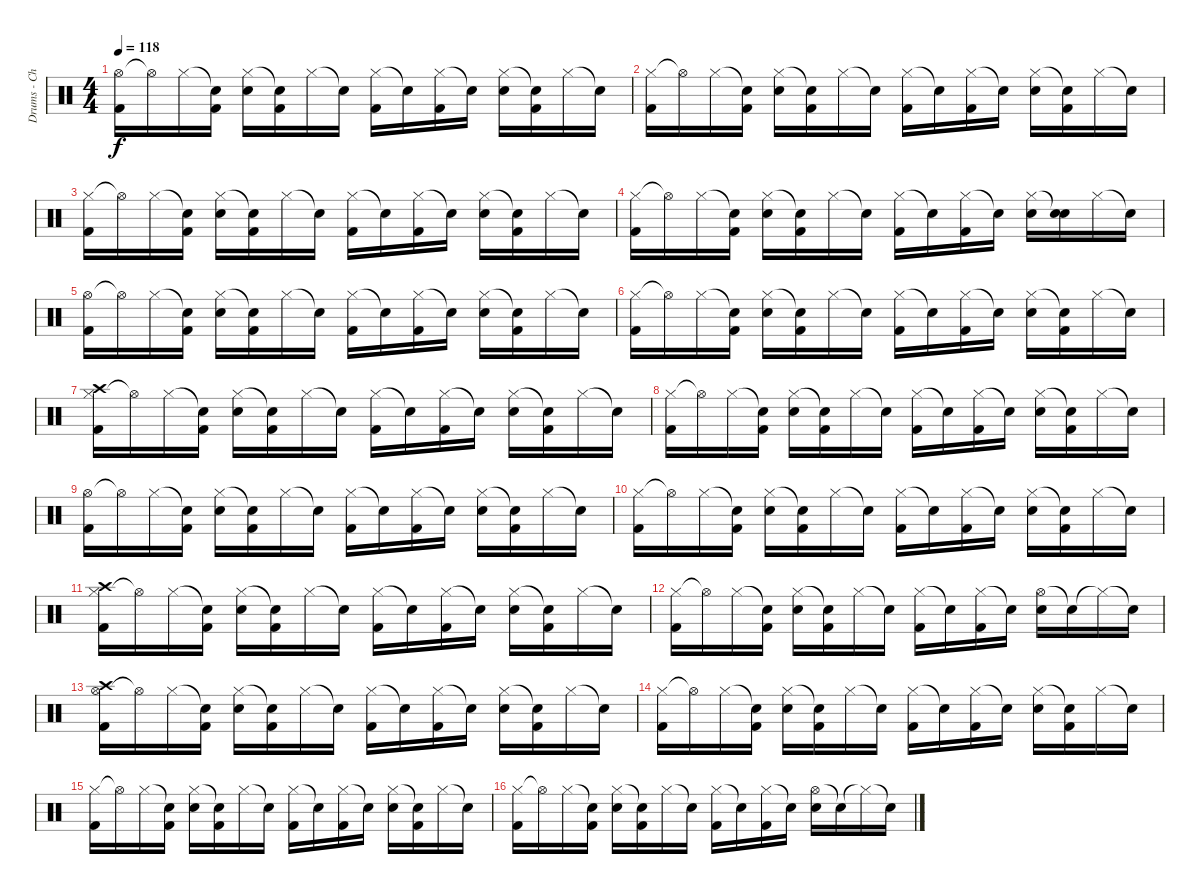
\track ("Drums - Chad" "Drums - Ch") {instrument percussion}
\staff {score}
\articulation defaults
\ts (4 4)
\tempo 118
\clef neutral
\ks c
("Hi-Hat (open)" "Kick (hit) 2").16{dy f} "Hi-Hat (open)"{t}.16 "Hi-Hat (closed)".16 ("Snare (hit)"{t} "Kick (hit) 2").16 ("Hi-Hat (closed)" "Electric Snare (hit)").16 ("Snare (hit)"{t} "Kick (hit) 2").16 "Hi-Hat (closed)".16 "Snare (hit)"{t}.16 ("Hi-Hat (closed)" "Kick (hit) 2").16 "Snare (hit)"{t}.16 ("Hi-Hat (closed)" "Kick (hit) 2").16 "Snare (hit)"{t}.16 ("Hi-Hat (closed)" "Electric Snare (hit)").16 ("Snare (hit)"{t} "Kick (hit) 2").16 "Hi-Hat (closed)".16 "Snare (hit)"{t}.16 |
("Hi-Hat (closed)" "Kick (hit) 2").16 "Hi-Hat (open)"{t}.16 "Hi-Hat (closed)".16 ("Snare (hit)"{t} "Kick (hit) 2").16 ("Hi-Hat (closed)" "Electric Snare (hit)").16 ("Snare (hit)"{t} "Kick (hit) 2").16 "Hi-Hat (closed)".16 "Snare (hit)"{t}.16 ("Hi-Hat (closed)" "Kick (hit) 2").16 "Snare (hit)"{t}.16 ("Hi-Hat (closed)" "Kick (hit) 2").16 "Snare (hit)"{t}.16 ("Hi-Hat (closed)" "Electric Snare (hit)").16 ("Snare (hit)"{t} "Kick (hit) 2").16 "Hi-Hat (closed)".16 "Snare (hit)"{t}.16 |
("Hi-Hat (closed)" "Kick (hit) 2").16 "Hi-Hat (open)"{t}.16 "Hi-Hat (closed)".16 ("Snare (hit)"{t} "Kick (hit) 2").16 ("Hi-Hat (closed)" "Electric Snare (hit)").16 ("Snare (hit)"{t} "Kick (hit) 2").16 "Hi-Hat (closed)".16 "Snare (hit)"{t}.16 ("Hi-Hat (closed)" "Kick (hit) 2").16 "Snare (hit)"{t}.16 ("Hi-Hat (closed)" "Kick (hit) 2").16 "Snare (hit)"{t}.16 ("Hi-Hat (closed)" "Electric Snare (hit)").16 ("Snare (hit)"{t} "Kick (hit) 2").16 "Hi-Hat (closed)".16 "Snare (hit)"{t}.16 |
("Hi-Hat (closed)" "Kick (hit) 2").16 "Hi-Hat (open)"{t}.16 "Hi-Hat (closed)".16 ("Snare (hit)"{t} "Kick (hit) 2").16 ("Hi-Hat (closed)" "Electric Snare (hit)").16 ("Snare (hit)"{t} "Kick (hit) 2").16 "Hi-Hat (closed)".16 "Snare (hit)"{t}.16 ("Hi-Hat (closed)" "Kick (hit) 2").16 "Snare (hit)"{t}.16 ("Hi-Hat (closed)" "Kick (hit) 2").16 "Snare (hit)"{t}.16 ("Hi-Hat (closed)" "Electric Snare (hit)").16 ("Snare (hit)"{t} "Electric Snare (hit)").16 "Hi-Hat (closed)".16 "Snare (hit)"{t}.16 |
("Hi-Hat (open)" "Kick (hit) 2").16 "Hi-Hat (open)"{t}.16 "Hi-Hat (closed)".16 ("Snare (hit)"{t} "Kick (hit) 2").16 ("Hi-Hat (closed)" "Electric Snare (hit)").16 ("Snare (hit)"{t} "Kick (hit) 2").16 "Hi-Hat (closed)".16 "Snare (hit)"{t}.16 ("Hi-Hat (closed)" "Kick (hit) 2").16 "Snare (hit)"{t}.16 ("Hi-Hat (closed)" "Kick (hit) 2").16 "Snare (hit)"{t}.16 ("Hi-Hat (closed)" "Electric Snare (hit)").16 ("Snare (hit)"{t} "Kick (hit) 2").16 "Hi-Hat (closed)".16 "Snare (hit)"{t}.16 |
("Hi-Hat (closed)" "Kick (hit) 2").16 "Hi-Hat (open)"{t}.16 "Hi-Hat (closed)".16 ("Snare (hit)"{t} "Kick (hit) 2").16 ("Hi-Hat (closed)" "Electric Snare (hit)").16 ("Snare (hit)"{t} "Kick (hit) 2").16 "Hi-Hat (closed)".16 "Snare (hit)"{t}.16 ("Hi-Hat (closed)" "Kick (hit) 2").16 "Snare (hit)"{t}.16 ("Hi-Hat (closed)" "Kick (hit) 2").16 "Snare (hit)"{t}.16 ("Hi-Hat (closed)" "Electric Snare (hit)").16 ("Snare (hit)"{t} "Kick (hit) 2").16 "Hi-Hat (closed)".16 "Snare (hit)"{t}.16 |
("Hi-Hat (closed)" "Kick (hit) 2" "Crash high (hit)").16 "Hi-Hat (open)"{t}.16 "Hi-Hat (closed)".16 ("Snare (hit)"{t} "Kick (hit) 2").16 ("Hi-Hat (closed)" "Electric Snare (hit)").16 ("Snare (hit)"{t} "Kick (hit) 2").16 "Hi-Hat (closed)".16 "Snare (hit)"{t}.16 ("Hi-Hat (closed)" "Kick (hit) 2").16 "Snare (hit)"{t}.16 ("Hi-Hat (closed)" "Kick (hit) 2").16 "Snare (hit)"{t}.16 ("Hi-Hat (closed)" "Electric Snare (hit)").16 ("Snare (hit)"{t} "Kick (hit) 2").16 "Hi-Hat (closed)".16 "Snare (hit)"{t}.16 |
("Hi-Hat (closed)" "Kick (hit) 2").16 "Hi-Hat (open)"{t}.16 "Hi-Hat (closed)".16 ("Snare (hit)"{t} "Kick (hit) 2").16 ("Hi-Hat (closed)" "Electric Snare (hit)").16 ("Snare (hit)"{t} "Kick (hit) 2").16 "Hi-Hat (closed)".16 "Snare (hit)"{t}.16 ("Hi-Hat (closed)" "Kick (hit) 2").16 "Snare (hit)"{t}.16 ("Hi-Hat (closed)" "Kick (hit) 2").16 "Snare (hit)"{t}.16 ("Hi-Hat (closed)" "Electric Snare (hit)").16 ("Snare (hit)"{t} "Kick (hit) 2").16 "Hi-Hat (closed)".16 "Snare (hit)"{t}.16 |
("Hi-Hat (open)" "Kick (hit) 2").16 "Hi-Hat (open)"{t}.16 "Hi-Hat (closed)".16 ("Snare (hit)"{t} "Kick (hit) 2").16 ("Hi-Hat (closed)" "Electric Snare (hit)").16 ("Snare (hit)"{t} "Kick (hit) 2").16 "Hi-Hat (closed)".16 "Snare (hit)"{t}.16 ("Hi-Hat (closed)" "Kick (hit) 2").16 "Snare (hit)"{t}.16 ("Hi-Hat (closed)" "Kick (hit) 2").16 "Snare (hit)"{t}.16 ("Hi-Hat (closed)" "Electric Snare (hit)").16 ("Snare (hit)"{t} "Kick (hit) 2").16 "Hi-Hat (closed)".16 "Snare (hit)"{t}.16 |
("Hi-Hat (closed)" "Kick (hit) 2").16 "Hi-Hat (open)"{t}.16 "Hi-Hat (closed)".16 ("Snare (hit)"{t} "Kick (hit) 2").16 ("Hi-Hat (closed)" "Electric Snare (hit)").16 ("Snare (hit)"{t} "Kick (hit) 2").16 "Hi-Hat (closed)".16 "Snare (hit)"{t}.16 ("Hi-Hat (closed)" "Kick (hit) 2").16 "Snare (hit)"{t}.16 ("Hi-Hat (closed)" "Kick (hit) 2").16 "Snare (hit)"{t}.16 ("Hi-Hat (closed)" "Electric Snare (hit)").16 ("Snare (hit)"{t} "Kick (hit) 2").16 "Hi-Hat (closed)".16 "Snare (hit)"{t}.16 |
("Hi-Hat (closed)" "Kick (hit) 2" "Crash high (hit)").16 "Hi-Hat (open)"{t}.16 "Hi-Hat (closed)".16 ("Snare (hit)"{t} "Kick (hit) 2").16 ("Hi-Hat (closed)" "Electric Snare (hit)").16 ("Snare (hit)"{t} "Kick (hit) 2").16 "Hi-Hat (closed)".16 "Snare (hit)"{t}.16 ("Hi-Hat (closed)" "Kick (hit) 2").16 "Snare (hit)"{t}.16 ("Hi-Hat (closed)" "Kick (hit) 2").16 "Snare (hit)"{t}.16 ("Hi-Hat (closed)" "Electric Snare (hit)").16 ("Snare (hit)"{t} "Kick (hit) 2").16 "Hi-Hat (closed)".16 "Snare (hit)"{t}.16 |
("Hi-Hat (closed)" "Kick (hit) 2").16 "Hi-Hat (open)"{t}.16 "Hi-Hat (closed)".16 ("Snare (hit)"{t} "Kick (hit) 2").16 ("Hi-Hat (closed)" "Electric Snare (hit)").16 ("Snare (hit)"{t} "Kick (hit) 2").16 "Hi-Hat (closed)".16 "Snare (hit)"{t}.16 ("Hi-Hat (closed)" "Kick (hit) 2").16 "Snare (hit)"{t}.16 ("Hi-Hat (closed)" "Kick (hit) 2").16 "Snare (hit)"{t}.16 ("Hi-Hat (open)" "Electric Snare (hit)").16 "Snare (hit)"{t}.16 "Hi-Hat (closed)"{t}.16 "Snare (hit)"{t}.16 |
("Hi-Hat (open)" "Kick (hit) 2" "Crash high (hit)").16 "Hi-Hat (open)"{t}.16 "Hi-Hat (closed)".16 ("Snare (hit)"{t} "Kick (hit) 2").16 ("Hi-Hat (closed)" "Electric Snare (hit)").16 ("Snare (hit)"{t} "Kick (hit) 2").16 "Hi-Hat (closed)".16 "Snare (hit)"{t}.16 ("Hi-Hat (closed)" "Kick (hit) 2").16 "Snare (hit)"{t}.16 ("Hi-Hat (closed)" "Kick (hit) 2").16 "Snare (hit)"{t}.16 ("Hi-Hat (closed)" "Electric Snare (hit)").16 ("Snare (hit)"{t} "Kick (hit) 2").16 "Hi-Hat (closed)".16 "Snare (hit)"{t}.16 |
("Hi-Hat (closed)" "Kick (hit) 2").16 "Hi-Hat (open)"{t}.16 "Hi-Hat (closed)".16 ("Snare (hit)"{t} "Kick (hit) 2").16 ("Hi-Hat (closed)" "Electric Snare (hit)").16 ("Snare (hit)"{t} "Kick (hit) 2").16 "Hi-Hat (closed)".16 "Snare (hit)"{t}.16 ("Hi-Hat (closed)" "Kick (hit) 2").16 "Snare (hit)"{t}.16 ("Hi-Hat (closed)" "Kick (hit) 2").16 "Snare (hit)"{t}.16 ("Hi-Hat (closed)" "Electric Snare (hit)").16 ("Snare (hit)"{t} "Kick (hit) 2").16 "Hi-Hat (closed)".16 "Snare (hit)"{t}.16 |
("Hi-Hat (closed)" "Kick (hit) 2").16 "Hi-Hat (open)"{t}.16 "Hi-Hat (closed)".16 ("Snare (hit)"{t} "Kick (hit) 2").16 ("Hi-Hat (closed)" "Electric Snare (hit)").16 ("Snare (hit)"{t} "Kick (hit) 2").16 "Hi-Hat (closed)".16 "Snare (hit)"{t}.16 ("Hi-Hat (closed)" "Kick (hit) 2").16 "Snare (hit)"{t}.16 ("Hi-Hat (closed)" "Kick (hit) 2").16 "Snare (hit)"{t}.16 ("Hi-Hat (closed)" "Electric Snare (hit)").16 ("Snare (hit)"{t} "Kick (hit) 2").16 "Hi-Hat (closed)".16 "Snare (hit)"{t}.16 |
("Hi-Hat (closed)" "Kick (hit) 2").16 "Hi-Hat (open)"{t}.16 "Hi-Hat (closed)".16 ("Snare (hit)"{t} "Kick (hit) 2").16 ("Hi-Hat (closed)" "Electric Snare (hit)").16 ("Snare (hit)"{t} "Kick (hit) 2").16 "Hi-Hat (closed)".16 "Snare (hit)"{t}.16 ("Hi-Hat (closed)" "Kick (hit) 2").16 "Snare (hit)"{t}.16 ("Hi-Hat (closed)" "Kick (hit) 2").16 "Snare (hit)"{t}.16 ("Hi-Hat (open)" "Electric Snare (hit)").16 "Snare (hit)"{t}.16 "Hi-Hat (closed)"{t}.16 "Snare (hit)"{t}.16
